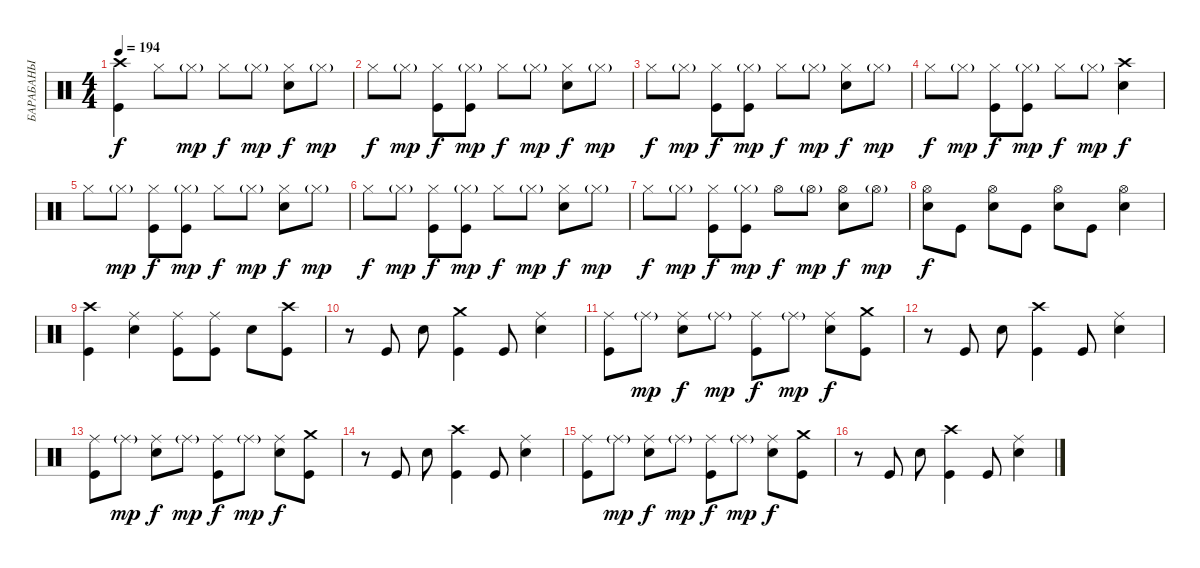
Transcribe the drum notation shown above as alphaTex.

\track ("БАРАБАНЫ" "БАРАБАНЫ") {instrument percussion}
\staff {score}
\articulation defaults
\ts (4 4)
\tempo 194
\clef neutral
\ks c
("Crash high (hit)" "Kick (hit)").4{dy f} "Hi-Hat (closed)".8 "Hi-Hat (closed)"{g}.8{dy mp} "Hi-Hat (closed)".8{dy f} "Hi-Hat (closed)"{g}.8{dy mp} ("Hi-Hat (closed)" "Electric Snare (hit)").8{dy f} "Hi-Hat (closed)"{g}.8{dy mp} |
"Hi-Hat (closed)".8{dy f} "Hi-Hat (closed)"{g}.8{dy mp} ("Hi-Hat (closed)" "Kick (hit)").8{dy f} ("Hi-Hat (closed)"{g} "Kick (hit)").8{dy mp} "Hi-Hat (closed)".8{dy f} "Hi-Hat (closed)"{g}.8{dy mp} ("Hi-Hat (closed)" "Electric Snare (hit)").8{dy f} "Hi-Hat (closed)"{g}.8{dy mp} |
"Hi-Hat (closed)".8{dy f} "Hi-Hat (closed)"{g}.8{dy mp} ("Hi-Hat (closed)" "Kick (hit)").8{dy f} ("Hi-Hat (closed)"{g} "Kick (hit)").8{dy mp} "Hi-Hat (closed)".8{dy f} "Hi-Hat (closed)"{g}.8{dy mp} ("Hi-Hat (closed)" "Electric Snare (hit)").8{dy f} "Hi-Hat (closed)"{g}.8{dy mp} |
"Hi-Hat (closed)".8{dy f} "Hi-Hat (closed)"{g}.8{dy mp} ("Hi-Hat (closed)" "Kick (hit)").8{dy f} ("Hi-Hat (closed)"{g} "Kick (hit)").8{dy mp} "Hi-Hat (closed)".8{dy f} "Hi-Hat (closed)"{g}.8{dy mp} ("Crash high (hit)" "Electric Snare (hit)").4{dy f} |
"Hi-Hat (closed)".8 "Hi-Hat (closed)"{g}.8{dy mp} ("Hi-Hat (closed)" "Kick (hit)").8{dy f} ("Hi-Hat (closed)"{g} "Kick (hit)").8{dy mp} "Hi-Hat (closed)".8{dy f} "Hi-Hat (closed)"{g}.8{dy mp} ("Hi-Hat (closed)" "Electric Snare (hit)").8{dy f} "Hi-Hat (closed)"{g}.8{dy mp} |
"Hi-Hat (closed)".8{dy f} "Hi-Hat (closed)"{g}.8{dy mp} ("Hi-Hat (closed)" "Kick (hit)").8{dy f} ("Hi-Hat (closed)"{g} "Kick (hit)").8{dy mp} "Hi-Hat (closed)".8{dy f} "Hi-Hat (closed)"{g}.8{dy mp} ("Hi-Hat (closed)" "Electric Snare (hit)").8{dy f} "Hi-Hat (closed)"{g}.8{dy mp} |
"Hi-Hat (closed)".8{dy f} "Hi-Hat (closed)"{g}.8{dy mp} ("Hi-Hat (closed)" "Kick (hit)").8{dy f} ("Hi-Hat (closed)"{g} "Kick (hit)").8{dy mp} "Hi-Hat (open)".8{dy f} "Hi-Hat (open)"{g}.8{dy mp} ("Hi-Hat (open)" "Electric Snare (hit)").8{dy f} "Hi-Hat (open)"{g}.8{dy mp} |
("Hi-Hat (open)" "Electric Snare (hit)").8{dy f} "Kick (hit)".8 ("Hi-Hat (open)" "Electric Snare (hit)").8 "Kick (hit)".8 ("Hi-Hat (open)" "Electric Snare (hit)").8 "Kick (hit)".8 ("Hi-Hat (open)" "Electric Snare (hit)").4 |
("Crash high (hit)" "Kick (hit)").4 ("Ride (middle)" "Electric Snare (hit)").4 ("Ride (middle)" "Kick (hit)").8 ("Ride (middle)" "Kick (hit)").8 "Electric Snare (hit)".8 ("Crash high (hit)" "Kick (hit)").8 |
r.8 "Kick (hit)".8 "Electric Snare (hit)".8 ("Crash medium (hit)" "Kick (hit)").4 "Kick (hit)".8 ("Ride (middle)" "Electric Snare (hit)").4 |
("Ride (middle)" "Kick (hit)").8 "Ride (middle)"{g}.8{dy mp} ("Ride (middle)" "Electric Snare (hit)").8{dy f} "Ride (middle)"{g}.8{dy mp} ("Ride (middle)" "Kick (hit)").8{dy f} "Ride (middle)"{g}.8{dy mp} ("Ride (middle)" "Electric Snare (hit)").8{dy f} ("Crash medium (hit)" "Kick (hit)").8 |
r.8 "Kick (hit)".8 "Electric Snare (hit)".8 ("Crash high (hit)" "Kick (hit)").4 "Kick (hit)".8 ("Ride (middle)" "Electric Snare (hit)").4 |
("Ride (middle)" "Kick (hit)").8 "Ride (middle)"{g}.8{dy mp} ("Ride (middle)" "Electric Snare (hit)").8{dy f} "Ride (middle)"{g}.8{dy mp} ("Ride (middle)" "Kick (hit)").8{dy f} "Ride (middle)"{g}.8{dy mp} ("Ride (middle)" "Electric Snare (hit)").8{dy f} ("Crash medium (hit)" "Kick (hit)").8 |
r.8 "Kick (hit)".8 "Electric Snare (hit)".8 ("Crash high (hit)" "Kick (hit)").4 "Kick (hit)".8 ("Ride (middle)" "Electric Snare (hit)").4 |
("Ride (middle)" "Kick (hit)").8 "Ride (middle)"{g}.8{dy mp} ("Ride (middle)" "Electric Snare (hit)").8{dy f} "Ride (middle)"{g}.8{dy mp} ("Ride (middle)" "Kick (hit)").8{dy f} "Ride (middle)"{g}.8{dy mp} ("Ride (middle)" "Electric Snare (hit)").8{dy f} ("Crash medium (hit)" "Kick (hit)").8 |
r.8 "Kick (hit)".8 "Electric Snare (hit)".8 ("Crash high (hit)" "Kick (hit)").4 "Kick (hit)".8 ("Ride (middle)" "Electric Snare (hit)").4
